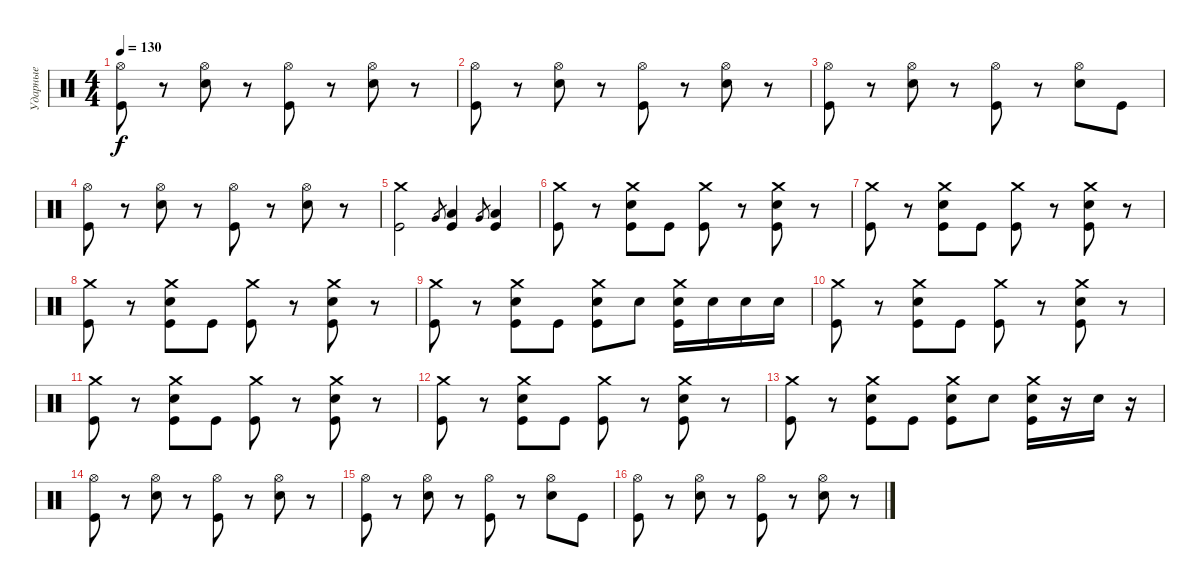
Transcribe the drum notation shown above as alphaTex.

\track ("Ударные" "Ударные") {instrument percussion}
\staff {score}
\articulation defaults
\ts (4 4)
\tempo 130
\clef neutral
\ks c
("Hi-Hat (open)" "Kick (hit)").8{dy f} r.8 ("Hi-Hat (open)" "Electric Snare (hit)").8 r.8 ("Hi-Hat (open)" "Kick (hit)").8 r.8 ("Hi-Hat (open)" "Electric Snare (hit)").8 r.8 |
("Hi-Hat (open)" "Kick (hit)").8 r.8 ("Hi-Hat (open)" "Electric Snare (hit)").8 r.8 ("Hi-Hat (open)" "Kick (hit)").8 r.8 ("Hi-Hat (open)" "Electric Snare (hit)").8 r.8 |
("Hi-Hat (open)" "Kick (hit)").8 r.8 ("Hi-Hat (open)" "Electric Snare (hit)").8 r.8 ("Hi-Hat (open)" "Kick (hit)").8 r.8 ("Hi-Hat (open)" "Electric Snare (hit)").8 "Kick (hit)".8 |
("Hi-Hat (open)" "Kick (hit)").8 r.8 ("Hi-Hat (open)" "Electric Snare (hit)").8 r.8 ("Hi-Hat (open)" "Kick (hit)").8 r.8 ("Hi-Hat (open)" "Electric Snare (hit)").8 r.8 |
("Crash medium (hit)" "Kick (hit)").2 "Very Low Tom (hit)".8{gr} ("Low Floor Tom (hit)" "Kick (hit)").4 "Very Low Tom (hit)".8{gr} ("Low Floor Tom (hit)" "Kick (hit)").4 |
("Crash medium (hit)" "Kick (hit)").8 r.8 ("Crash medium (hit)" "Electric Snare (hit)" "Kick (hit)").8 "Kick (hit)".8 ("Crash medium (hit)" "Kick (hit)").8 r.8 ("Crash medium (hit)" "Electric Snare (hit)" "Kick (hit)").8 r.8 |
("Crash medium (hit)" "Kick (hit)").8 r.8 ("Crash medium (hit)" "Electric Snare (hit)" "Kick (hit)").8 "Kick (hit)".8 ("Crash medium (hit)" "Kick (hit)").8 r.8 ("Crash medium (hit)" "Electric Snare (hit)" "Kick (hit)").8 r.8 |
("Crash medium (hit)" "Kick (hit)").8 r.8 ("Crash medium (hit)" "Electric Snare (hit)" "Kick (hit)").8 "Kick (hit)".8 ("Crash medium (hit)" "Kick (hit)").8 r.8 ("Crash medium (hit)" "Electric Snare (hit)" "Kick (hit)").8 r.8 |
("Crash medium (hit)" "Kick (hit)").8 r.8 ("Crash medium (hit)" "Electric Snare (hit)" "Kick (hit)").8 "Kick (hit)".8 ("Crash medium (hit)" "Electric Snare (hit)" "Kick (hit)").8 "Electric Snare (hit)".8 ("Crash medium (hit)" "Electric Snare (hit)" "Kick (hit)").16 "Electric Snare (hit)".16 "Electric Snare (hit)".16 "Electric Snare (hit)".16 |
("Crash medium (hit)" "Kick (hit)").8 r.8 ("Crash medium (hit)" "Electric Snare (hit)" "Kick (hit)").8 "Kick (hit)".8 ("Crash medium (hit)" "Kick (hit)").8 r.8 ("Crash medium (hit)" "Electric Snare (hit)" "Kick (hit)").8 r.8 |
("Crash medium (hit)" "Kick (hit)").8 r.8 ("Crash medium (hit)" "Electric Snare (hit)" "Kick (hit)").8 "Kick (hit)".8 ("Crash medium (hit)" "Kick (hit)").8 r.8 ("Crash medium (hit)" "Electric Snare (hit)" "Kick (hit)").8 r.8 |
("Crash medium (hit)" "Kick (hit)").8 r.8 ("Crash medium (hit)" "Electric Snare (hit)" "Kick (hit)").8 "Kick (hit)".8 ("Crash medium (hit)" "Kick (hit)").8 r.8 ("Crash medium (hit)" "Electric Snare (hit)" "Kick (hit)").8 r.8 |
("Crash medium (hit)" "Kick (hit)").8 r.8 ("Crash medium (hit)" "Electric Snare (hit)" "Kick (hit)").8 "Kick (hit)".8 ("Crash medium (hit)" "Electric Snare (hit)" "Kick (hit)").8 "Electric Snare (hit)".8 ("Crash medium (hit)" "Electric Snare (hit)" "Kick (hit)").16 r.16 "Electric Snare (hit)".16 r.16 |
("Hi-Hat (open)" "Kick (hit)").8 r.8 ("Hi-Hat (open)" "Electric Snare (hit)").8 r.8 ("Hi-Hat (open)" "Kick (hit)").8 r.8 ("Hi-Hat (open)" "Electric Snare (hit)").8 r.8 |
("Hi-Hat (open)" "Kick (hit)").8 r.8 ("Hi-Hat (open)" "Electric Snare (hit)").8 r.8 ("Hi-Hat (open)" "Kick (hit)").8 r.8 ("Hi-Hat (open)" "Electric Snare (hit)").8 "Kick (hit)".8 |
("Hi-Hat (open)" "Kick (hit)").8 r.8 ("Hi-Hat (open)" "Electric Snare (hit)").8 r.8 ("Hi-Hat (open)" "Kick (hit)").8 r.8 ("Hi-Hat (open)" "Electric Snare (hit)").8 r.8
